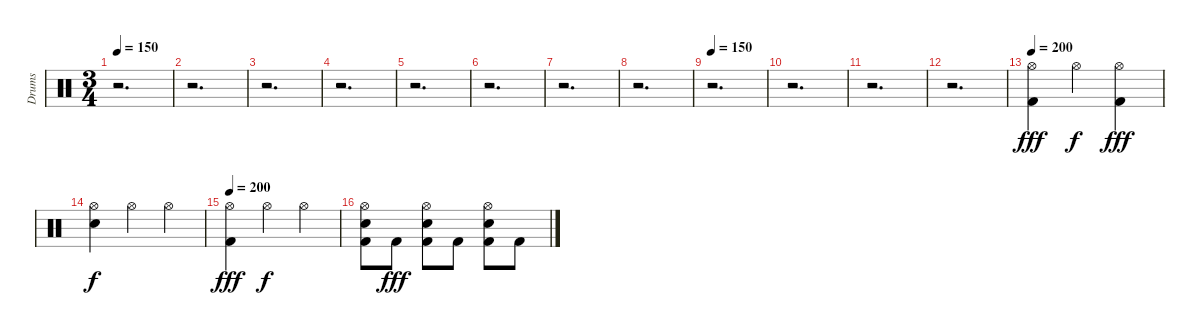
\track ("Drums" "Drums") {instrument percussion}
\staff {score}
\articulation defaults
\ts (3 4)
\tempo 150
\clef neutral
\ks c
r.2{d dy fff} |
r.2{d} |
r.2{d} |
r.2{d} |
r.2{d} |
r.2{d} |
r.2{d} |
r.2{d} |
\tempo 150
r.2{d} |
r.2{d} |
r.2{d} |
r.2{d} |
\tempo 200
("Hi-Hat (open)" "Kick (hit) 2").4 "Hi-Hat (open)".4{dy f} ("Hi-Hat (open)" "Kick (hit) 2").4{dy fff} |
("Hi-Hat (open)" "Electric Snare (hit)").4{dy f} "Hi-Hat (open)".4 "Hi-Hat (open)".4 |
\tempo 200
("Hi-Hat (open)" "Kick (hit) 2").4{dy fff} "Hi-Hat (open)".4{dy f} "Hi-Hat (open)".4 |
("Hi-Hat (open)" "Electric Snare (hit)" "Kick (hit) 2").8 "Kick (hit) 2".8{dy fff} ("Hi-Hat (open)" "Electric Snare (hit)" "Kick (hit) 2").8 "Kick (hit) 2".8 ("Hi-Hat (open)" "Electric Snare (hit)" "Kick (hit) 2").8 "Kick (hit) 2".8
